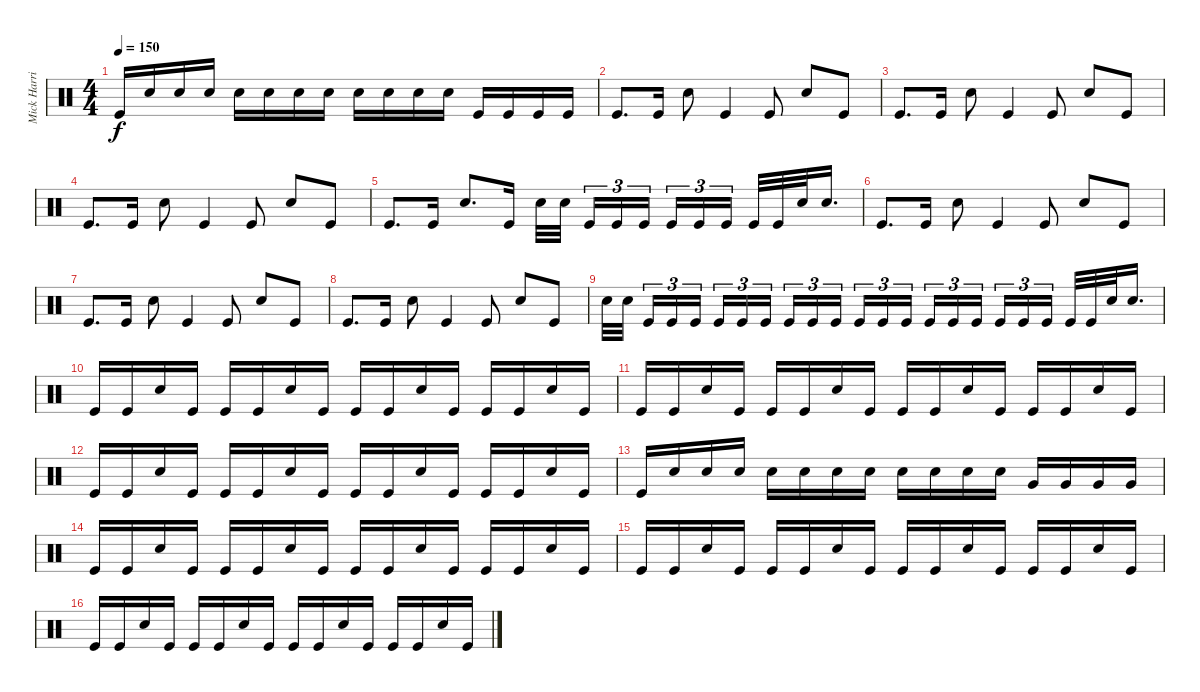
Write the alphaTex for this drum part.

\track ("Mick Harris" "Mick Harri") {instrument percussion}
\staff {score}
\articulation defaults
\ts (4 4)
\tempo 150
\clef neutral
\ks c "Kick (hit)".16{dy f} "Snare (hit) 2".16 "Snare (hit) 2".16 "Snare (hit) 2".16 "Snare (hit) 2".16 "Snare (hit) 2".16 "Snare (hit) 2".16 "Snare (hit) 2".16 "Snare (hit) 2".16 "Snare (hit) 2".16 "Snare (hit) 2".16 "Snare (hit) 2".16 "Kick (hit)".16 "Kick (hit)".16 "Kick (hit)".16 "Kick (hit)".16
|
"Kick (hit)".8{d} "Kick (hit)".16 "Snare (hit) 2".8 "Kick (hit)".4 "Kick (hit)".8 "Snare (hit) 2".8 "Kick (hit)".8 |
"Kick (hit)".8{d} "Kick (hit)".16 "Snare (hit) 2".8 "Kick (hit)".4 "Kick (hit)".8 "Snare (hit) 2".8 "Kick (hit)".8 |
"Kick (hit)".8{d} "Kick (hit)".16 "Snare (hit) 2".8 "Kick (hit)".4 "Kick (hit)".8 "Snare (hit) 2".8 "Kick (hit)".8 |
"Kick (hit)".8{d} "Kick (hit)".16 "Snare (hit) 2".8{d} "Kick (hit)".16 "Snare (hit) 2".32 "Snare (hit) 2".32{beam splitsecondary} "Kick (hit)".16{tu (3 2)} "Kick (hit)".16{tu (3 2)} "Kick (hit)".16{tu (3 2) beam splitsecondary} "Kick (hit)".16{tu (3 2)} "Kick (hit)".16{tu (3 2)} "Kick (hit)".16{tu (3 2) beam splitsecondary} "Kick (hit)".32 "Kick (hit)".32 "Snare (hit) 2".32 "Snare (hit) 2".16{d} |
"Kick (hit)".8{d} "Kick (hit)".16 "Snare (hit) 2".8 "Kick (hit)".4 "Kick (hit)".8 "Snare (hit) 2".8 "Kick (hit)".8 |
"Kick (hit)".8{d} "Kick (hit)".16 "Snare (hit) 2".8 "Kick (hit)".4 "Kick (hit)".8 "Snare (hit) 2".8 "Kick (hit)".8 |
"Kick (hit)".8{d} "Kick (hit)".16 "Snare (hit) 2".8 "Kick (hit)".4 "Kick (hit)".8 "Snare (hit) 2".8 "Kick (hit)".8 |
"Snare (hit) 2".32 "Snare (hit) 2".32{beam splitsecondary} "Kick (hit)".16{tu (3 2)} "Kick (hit)".16{tu (3 2)} "Kick (hit)".16{tu (3 2) beam splitsecondary} "Kick (hit)".16{tu (3 2)} "Kick (hit)".16{tu (3 2)} "Kick (hit)".16{tu (3 2) beam splitsecondary} "Kick (hit)".16{tu (3 2)} "Kick (hit)".16{tu (3 2)} "Kick (hit)".16{tu (3 2) beam splitsecondary} "Kick (hit)".16{tu (3 2)} "Kick (hit)".16{tu (3 2)} "Kick (hit)".16{tu (3 2) beam splitsecondary} "Kick (hit)".16{tu (3 2)} "Kick (hit)".16{tu (3 2)} "Kick (hit)".16{tu (3 2) beam splitsecondary} "Kick (hit)".16{tu (3 2)} "Kick (hit)".16{tu (3 2)} "Kick (hit)".16{tu (3 2) beam splitsecondary} "Kick (hit)".32 "Kick (hit)".32 "Snare (hit) 2".32 "Snare (hit) 2".16{d} |
"Kick (hit)".16 "Kick (hit)".16 "Snare (hit) 2".16 "Kick (hit)".16 "Kick (hit)".16 "Kick (hit)".16 "Snare (hit) 2".16 "Kick (hit)".16 "Kick (hit)".16 "Kick (hit)".16 "Snare (hit) 2".16 "Kick (hit)".16 "Kick (hit)".16 "Kick (hit)".16 "Snare (hit) 2".16 "Kick (hit)".16 |
"Kick (hit)".16 "Kick (hit)".16 "Snare (hit) 2".16 "Kick (hit)".16 "Kick (hit)".16 "Kick (hit)".16 "Snare (hit) 2".16 "Kick (hit)".16 "Kick (hit)".16 "Kick (hit)".16 "Snare (hit) 2".16 "Kick (hit)".16 "Kick (hit)".16 "Kick (hit)".16 "Snare (hit) 2".16 "Kick (hit)".16 |
"Kick (hit)".16 "Kick (hit)".16 "Snare (hit) 2".16 "Kick (hit)".16 "Kick (hit)".16 "Kick (hit)".16 "Snare (hit) 2".16 "Kick (hit)".16 "Kick (hit)".16 "Kick (hit)".16 "Snare (hit) 2".16 "Kick (hit)".16 "Kick (hit)".16 "Kick (hit)".16 "Snare (hit) 2".16 "Kick (hit)".16 |
"Kick (hit)".16 "Snare (hit) 2".16 "Snare (hit) 2".16 "Snare (hit) 2".16 "Snare (hit) 2".16 "Snare (hit) 2".16 "Snare (hit) 2".16 "Snare (hit) 2".16 "Snare (hit) 2".16 "Snare (hit) 2".16 "Snare (hit) 2".16 "Snare (hit) 2".16 "Very Low Tom (hit)".16 "Very Low Tom (hit)".16 "Very Low Tom (hit)".16 "Very Low Tom (hit)".16 |
"Kick (hit)".16 "Kick (hit)".16 "Snare (hit) 2".16 "Kick (hit)".16 "Kick (hit)".16 "Kick (hit)".16 "Snare (hit) 2".16 "Kick (hit)".16 "Kick (hit)".16 "Kick (hit)".16 "Snare (hit) 2".16 "Kick (hit)".16 "Kick (hit)".16 "Kick (hit)".16 "Snare (hit) 2".16 "Kick (hit)".16 |
"Kick (hit)".16 "Kick (hit)".16 "Snare (hit) 2".16 "Kick (hit)".16 "Kick (hit)".16 "Kick (hit)".16 "Snare (hit) 2".16 "Kick (hit)".16 "Kick (hit)".16 "Kick (hit)".16 "Snare (hit) 2".16 "Kick (hit)".16 "Kick (hit)".16 "Kick (hit)".16 "Snare (hit) 2".16 "Kick (hit)".16 |
"Kick (hit)".16 "Kick (hit)".16 "Snare (hit) 2".16 "Kick (hit)".16 "Kick (hit)".16 "Kick (hit)".16 "Snare (hit) 2".16 "Kick (hit)".16 "Kick (hit)".16 "Kick (hit)".16 "Snare (hit) 2".16 "Kick (hit)".16 "Kick (hit)".16 "Kick (hit)".16 "Snare (hit) 2".16 "Kick (hit)".16
